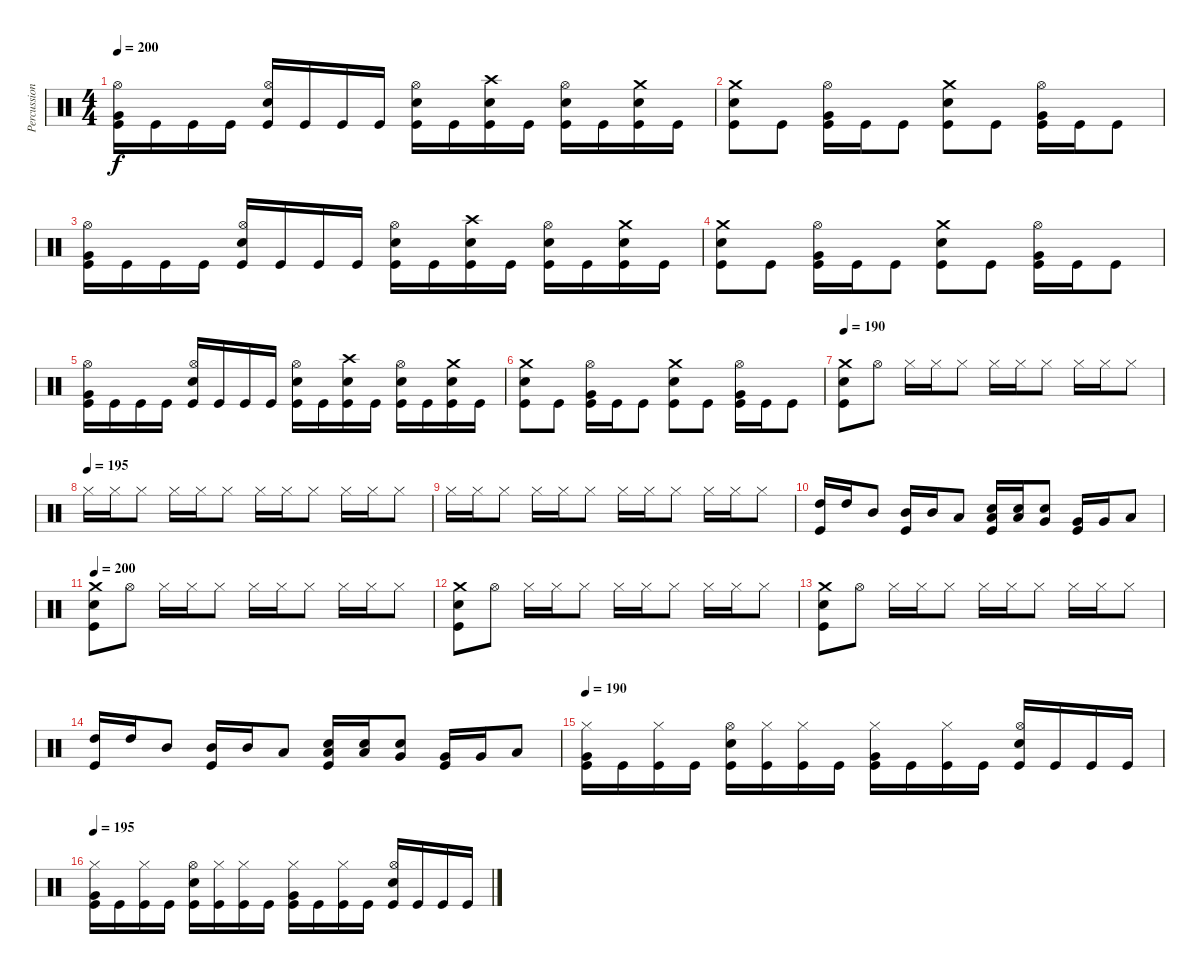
\track ("Percussion" "Percussion") {instrument percussion}
\staff {score}
\articulation defaults
\ts (4 4)
\tempo 200
\clef neutral
\ks c
("Kick (hit)" "Very Low Tom (hit)" "Hi-Hat (open)").16{dy f} "Kick (hit)".16 "Kick (hit)".16 "Kick (hit)".16 ("Kick (hit)" "Snare (hit) 2" "Hi-Hat (open)").16 "Kick (hit)".16 "Kick (hit)".16 "Kick (hit)".16 ("Kick (hit)" "Snare (hit) 2" "Hi-Hat (open)").16 "Kick (hit)".16 ("Kick (hit)" "Snare (hit) 2" "Crash high (hit)").16 "Kick (hit)".16 ("Kick (hit)" "Snare (hit) 2" "Hi-Hat (open)").16 "Kick (hit)".16 ("Kick (hit)" "Snare (hit) 2" "Crash medium (hit)").16 "Kick (hit)".16 |
("Kick (hit)" "Snare (hit) 2" "Crash medium (hit)").8 "Kick (hit)".8 ("Kick (hit)" "Very Low Tom (hit)" "Hi-Hat (open)").16 "Kick (hit)".16 "Kick (hit)".8 ("Kick (hit)" "Snare (hit) 2" "Crash medium (hit)").8 "Kick (hit)".8 ("Kick (hit)" "Very Low Tom (hit)" "Hi-Hat (open)").16 "Kick (hit)".16 "Kick (hit)".8 |
("Kick (hit)" "Very Low Tom (hit)" "Hi-Hat (open)").16 "Kick (hit)".16 "Kick (hit)".16 "Kick (hit)".16 ("Kick (hit)" "Snare (hit) 2" "Hi-Hat (open)").16 "Kick (hit)".16 "Kick (hit)".16 "Kick (hit)".16 ("Kick (hit)" "Snare (hit) 2" "Hi-Hat (open)").16 "Kick (hit)".16 ("Kick (hit)" "Snare (hit) 2" "Crash high (hit)").16 "Kick (hit)".16 ("Kick (hit)" "Snare (hit) 2" "Hi-Hat (open)").16 "Kick (hit)".16 ("Kick (hit)" "Snare (hit) 2" "Crash medium (hit)").16 "Kick (hit)".16 |
("Kick (hit)" "Snare (hit) 2" "Crash medium (hit)").8 "Kick (hit)".8 ("Kick (hit)" "Very Low Tom (hit)" "Hi-Hat (open)").16 "Kick (hit)".16 "Kick (hit)".8 ("Kick (hit)" "Snare (hit) 2" "Crash medium (hit)").8 "Kick (hit)".8 ("Kick (hit)" "Very Low Tom (hit)" "Hi-Hat (open)").16 "Kick (hit)".16 "Kick (hit)".8 |
("Kick (hit)" "Very Low Tom (hit)" "Hi-Hat (open)").16 "Kick (hit)".16 "Kick (hit)".16 "Kick (hit)".16 ("Kick (hit)" "Snare (hit) 2" "Hi-Hat (open)").16 "Kick (hit)".16 "Kick (hit)".16 "Kick (hit)".16 ("Kick (hit)" "Snare (hit) 2" "Hi-Hat (open)").16 "Kick (hit)".16 ("Kick (hit)" "Snare (hit) 2" "Crash high (hit)").16 "Kick (hit)".16 ("Kick (hit)" "Snare (hit) 2" "Hi-Hat (open)").16 "Kick (hit)".16 ("Kick (hit)" "Snare (hit) 2" "Crash medium (hit)").16 "Kick (hit)".16 |
("Kick (hit)" "Snare (hit) 2" "Crash medium (hit)").8 "Kick (hit)".8 ("Kick (hit)" "Very Low Tom (hit)" "Hi-Hat (open)").16 "Kick (hit)".16 "Kick (hit)".8 ("Kick (hit)" "Snare (hit) 2" "Crash medium (hit)").8 "Kick (hit)".8 ("Kick (hit)" "Very Low Tom (hit)" "Hi-Hat (open)").16 "Kick (hit)".16 "Kick (hit)".8 |
\tempo 190
("Snare (hit) 2" "Crash medium (hit)" "Kick (hit)").8 "Hi-Hat (open)".8 "Hi-Hat (closed)".16 "Hi-Hat (closed)".16 "Hi-Hat (closed)".8 "Hi-Hat (closed)".16 "Hi-Hat (closed)".16 "Hi-Hat (closed)".8 "Hi-Hat (closed)".16 "Hi-Hat (closed)".16 "Hi-Hat (closed)".8 |
\tempo (195)
"Hi-Hat (closed)".16 "Hi-Hat (closed)".16 "Hi-Hat (closed)".8 "Hi-Hat (closed)".16 "Hi-Hat (closed)".16 "Hi-Hat (closed)".8 "Hi-Hat (closed)".16 "Hi-Hat (closed)".16 "Hi-Hat (closed)".8 "Hi-Hat (closed)".16 "Hi-Hat (closed)".16 "Hi-Hat (closed)".8 |
"Hi-Hat (closed)".16 "Hi-Hat (closed)".16 "Hi-Hat (closed)".8 "Hi-Hat (closed)".16 "Hi-Hat (closed)".16 "Hi-Hat (closed)".8 "Hi-Hat (closed)".16 "Hi-Hat (closed)".16 "Hi-Hat (closed)".8 "Hi-Hat (closed)".16 "Hi-Hat (closed)".16 "Hi-Hat (closed)".8 |
("High Tom (hit)" "Kick (hit)").16 "High Tom (hit)".16 "Mid Tom (hit)".8 ("Mid Tom (hit)" "Kick (hit)").16 "Mid Tom (hit)".16 "Low Tom (hit)".8 ("Low Tom (hit)" "Kick (hit)" "Snare (hit) 2").16 ("Low Tom (hit)" "Snare (hit) 2").16 ("Very Low Tom (hit)" "Snare (hit) 2").8 ("Very Low Tom (hit)" "Kick (hit)").16 "Very Low Tom (hit)".16 "Low Floor Tom (hit)".8 |
\tempo 200
("Snare (hit) 2" "Crash medium (hit)" "Kick (hit)").8 "Hi-Hat (open)".8 "Hi-Hat (closed)".16 "Hi-Hat (closed)".16 "Hi-Hat (closed)".8 "Hi-Hat (closed)".16 "Hi-Hat (closed)".16 "Hi-Hat (closed)".8 "Hi-Hat (closed)".16 "Hi-Hat (closed)".16 "Hi-Hat (closed)".8 |
("Snare (hit) 2" "Crash medium (hit)" "Kick (hit)").8 "Hi-Hat (open)".8 "Hi-Hat (closed)".16 "Hi-Hat (closed)".16 "Hi-Hat (closed)".8 "Hi-Hat (closed)".16 "Hi-Hat (closed)".16 "Hi-Hat (closed)".8 "Hi-Hat (closed)".16 "Hi-Hat (closed)".16 "Hi-Hat (closed)".8 |
("Snare (hit) 2" "Crash medium (hit)" "Kick (hit)").8 "Hi-Hat (open)".8 "Hi-Hat (closed)".16 "Hi-Hat (closed)".16 "Hi-Hat (closed)".8 "Hi-Hat (closed)".16 "Hi-Hat (closed)".16 "Hi-Hat (closed)".8 "Hi-Hat (closed)".16 "Hi-Hat (closed)".16 "Hi-Hat (closed)".8 |
("High Tom (hit)" "Kick (hit)").16 "High Tom (hit)".16 "Mid Tom (hit)".8 ("Mid Tom (hit)" "Kick (hit)").16 "Mid Tom (hit)".16 "Low Tom (hit)".8 ("Low Tom (hit)" "Kick (hit)" "Snare (hit) 2").16 ("Low Tom (hit)" "Snare (hit) 2").16 ("Very Low Tom (hit)" "Snare (hit) 2").8 ("Very Low Tom (hit)" "Kick (hit)").16 "Very Low Tom (hit)".16 "Low Floor Tom (hit)".8 |
\tempo 190
("Kick (hit)" "Very Low Tom (hit)" "Hi-Hat (closed)").16 "Kick (hit)".16 ("Kick (hit)" "Hi-Hat (closed)").16 "Kick (hit)".16 ("Kick (hit)" "Snare (hit) 2" "Hi-Hat (open)").16 ("Kick (hit)" "Hi-Hat (closed)").16 ("Kick (hit)" "Hi-Hat (closed)").16 "Kick (hit)".16 ("Kick (hit)" "Very Low Tom (hit)" "Hi-Hat (closed)").16 "Kick (hit)".16 ("Kick (hit)" "Hi-Hat (closed)").16 "Kick (hit)".16 ("Kick (hit)" "Snare (hit) 2" "Hi-Hat (open)").16 "Kick (hit)".16 "Kick (hit)".16 "Kick (hit)".16 |
\tempo 195
("Kick (hit)" "Very Low Tom (hit)" "Hi-Hat (closed)").16 "Kick (hit)".16 ("Kick (hit)" "Hi-Hat (closed)").16 "Kick (hit)".16 ("Kick (hit)" "Snare (hit) 2" "Hi-Hat (open)").16 ("Kick (hit)" "Hi-Hat (closed)").16 ("Kick (hit)" "Hi-Hat (closed)").16 "Kick (hit)".16 ("Kick (hit)" "Very Low Tom (hit)" "Hi-Hat (closed)").16 "Kick (hit)".16 ("Kick (hit)" "Hi-Hat (closed)").16 "Kick (hit)".16 ("Kick (hit)" "Snare (hit) 2" "Hi-Hat (open)").16 "Kick (hit)".16 "Kick (hit)".16 "Kick (hit)".16
